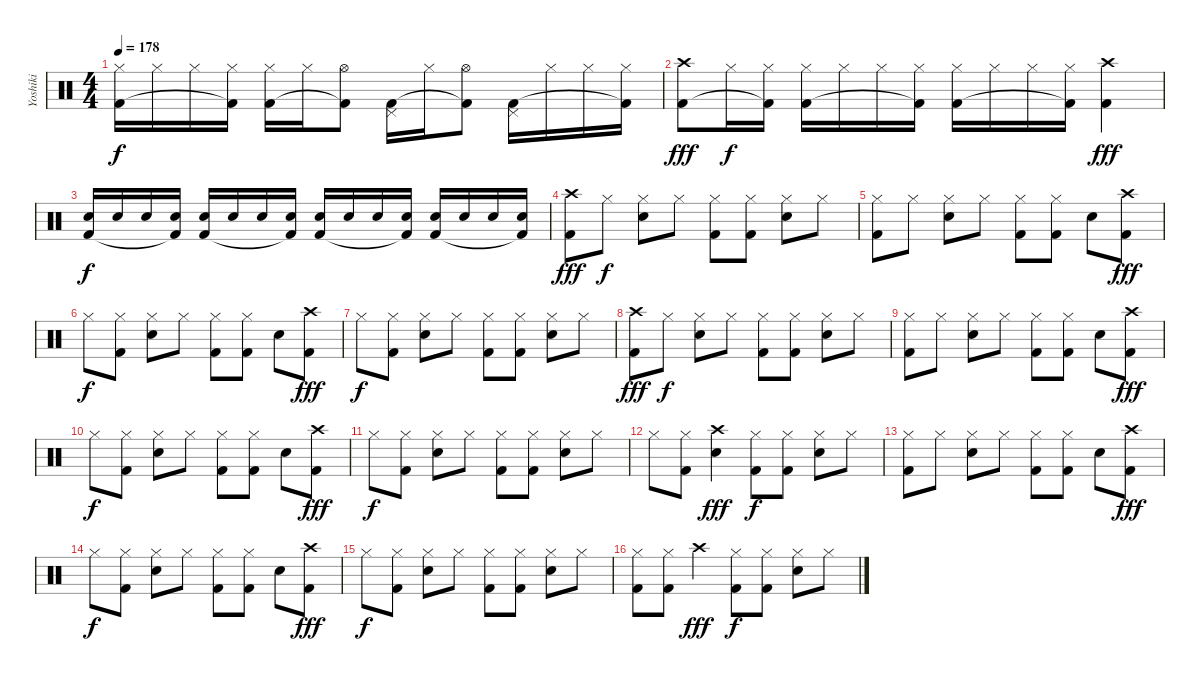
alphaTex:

\track ("Yoshiki" "Yoshiki") {instrument percussion}
\staff {score}
\articulation defaults
\ts (4 4)
\tempo 178
\clef neutral
\ks c
("Hi-Hat (closed)" "Kick (hit) 2").16{dy f} "Hi-Hat (closed)".16 "Hi-Hat (closed)".16 ("Hi-Hat (closed)" "Kick (hit) 2"{t}).16 ("Hi-Hat (closed)" "Kick (hit) 2").16 "Hi-Hat (closed)".16 ("Hi-Hat (open)" "Kick (hit) 2"{t}).8 ("Pedal Hi-Hat (hit)" "Kick (hit) 2").16 "Hi-Hat (closed)".16 ("Hi-Hat (open)" "Kick (hit) 2"{t}).8 ("Pedal Hi-Hat (hit)" "Kick (hit) 2").16 "Hi-Hat (closed)".16 "Hi-Hat (closed)".16 ("Hi-Hat (closed)" "Kick (hit) 2"{t}).16 |
("Crash high (hit)" "Kick (hit) 2").8{dy fff} "Hi-Hat (closed)".16{dy f} ("Hi-Hat (closed)" "Kick (hit) 2"{t}).16 ("Hi-Hat (closed)" "Kick (hit) 2").16 "Hi-Hat (closed)".16 "Hi-Hat (closed)".16 ("Hi-Hat (closed)" "Kick (hit) 2"{t}).16 ("Hi-Hat (closed)" "Kick (hit) 2").16 "Hi-Hat (closed)".16 "Hi-Hat (closed)".16 ("Hi-Hat (closed)" "Kick (hit) 2"{t}).16 ("Crash high (hit)" "Kick (hit) 2").4{dy fff} |
("Snare (hit) 2" "Kick (hit) 2").16{dy f} "Snare (hit) 2".16 "Snare (hit) 2".16 ("Snare (hit) 2" "Kick (hit) 2"{t}).16 ("Snare (hit) 2" "Kick (hit) 2").16 "Snare (hit) 2".16 "Snare (hit) 2".16 ("Snare (hit) 2" "Kick (hit) 2"{t}).16 ("Snare (hit) 2" "Kick (hit) 2").16 "Snare (hit) 2".16 "Snare (hit) 2".16 ("Snare (hit) 2" "Kick (hit) 2"{t}).16 ("Snare (hit) 2" "Kick (hit) 2").16 "Snare (hit) 2".16 "Snare (hit) 2".16 ("Snare (hit) 2" "Kick (hit) 2"{t}).16 |
("Crash high (hit)" "Kick (hit) 2").8{dy fff} "Hi-Hat (closed)".8{dy f} ("Hi-Hat (closed)" "Snare (hit) 2").8 "Hi-Hat (closed)".8 ("Hi-Hat (closed)" "Kick (hit) 2").8 ("Hi-Hat (closed)" "Kick (hit) 2").8 ("Hi-Hat (closed)" "Snare (hit) 2").8 "Hi-Hat (closed)".8 |
("Hi-Hat (closed)" "Kick (hit) 2").8 "Hi-Hat (closed)".8 ("Hi-Hat (closed)" "Snare (hit) 2").8 "Hi-Hat (closed)".8 ("Hi-Hat (closed)" "Kick (hit) 2").8 ("Hi-Hat (closed)" "Kick (hit) 2").8 "Snare (hit) 2".8 ("Crash high (hit)" "Kick (hit) 2").8{dy fff} |
"Hi-Hat (closed)".8{dy f} ("Hi-Hat (closed)" "Kick (hit) 2").8 ("Hi-Hat (closed)" "Snare (hit) 2").8 "Hi-Hat (closed)".8 ("Hi-Hat (closed)" "Kick (hit) 2").8 ("Hi-Hat (closed)" "Kick (hit) 2").8 "Snare (hit) 2".8 ("Crash high (hit)" "Kick (hit) 2").8{dy fff} |
"Hi-Hat (closed)".8{dy f} ("Hi-Hat (closed)" "Kick (hit) 2").8 ("Hi-Hat (closed)" "Snare (hit) 2").8 "Hi-Hat (closed)".8 ("Hi-Hat (closed)" "Kick (hit) 2").8 ("Hi-Hat (closed)" "Kick (hit) 2").8 ("Hi-Hat (closed)" "Snare (hit) 2").8 "Hi-Hat (closed)".8 |
("Crash high (hit)" "Kick (hit) 2").8{dy fff} "Hi-Hat (closed)".8{dy f} ("Hi-Hat (closed)" "Snare (hit) 2").8 "Hi-Hat (closed)".8 ("Hi-Hat (closed)" "Kick (hit) 2").8 ("Hi-Hat (closed)" "Kick (hit) 2").8 ("Hi-Hat (closed)" "Snare (hit) 2").8 "Hi-Hat (closed)".8 |
("Hi-Hat (closed)" "Kick (hit) 2").8 "Hi-Hat (closed)".8 ("Hi-Hat (closed)" "Snare (hit) 2").8 "Hi-Hat (closed)".8 ("Hi-Hat (closed)" "Kick (hit) 2").8 ("Hi-Hat (closed)" "Kick (hit) 2").8 "Snare (hit) 2".8 ("Crash high (hit)" "Kick (hit) 2").8{dy fff} |
"Hi-Hat (closed)".8{dy f} ("Hi-Hat (closed)" "Kick (hit) 2").8 ("Hi-Hat (closed)" "Snare (hit) 2").8 "Hi-Hat (closed)".8 ("Hi-Hat (closed)" "Kick (hit) 2").8 ("Hi-Hat (closed)" "Kick (hit) 2").8 "Snare (hit) 2".8 ("Crash high (hit)" "Kick (hit) 2").8{dy fff} |
"Hi-Hat (closed)".8{dy f} ("Hi-Hat (closed)" "Kick (hit) 2").8 ("Hi-Hat (closed)" "Snare (hit) 2").8 "Hi-Hat (closed)".8 ("Hi-Hat (closed)" "Kick (hit) 2").8 ("Hi-Hat (closed)" "Kick (hit) 2").8 ("Hi-Hat (closed)" "Snare (hit) 2").8 "Hi-Hat (closed)".8 |
"Hi-Hat (closed)".8 ("Hi-Hat (closed)" "Kick (hit) 2").8 ("Crash high (hit)" "Snare (hit) 2").4{dy fff} ("Hi-Hat (closed)" "Kick (hit) 2").8{dy f} ("Hi-Hat (closed)" "Kick (hit) 2").8 ("Hi-Hat (closed)" "Snare (hit) 2").8 "Hi-Hat (closed)".8 |
("Hi-Hat (closed)" "Kick (hit) 2").8 "Hi-Hat (closed)".8 ("Hi-Hat (closed)" "Snare (hit) 2").8 "Hi-Hat (closed)".8 ("Hi-Hat (closed)" "Kick (hit) 2").8 ("Hi-Hat (closed)" "Kick (hit) 2").8 "Snare (hit) 2".8 ("Crash high (hit)" "Kick (hit) 2").8{dy fff} |
"Hi-Hat (closed)".8{dy f} ("Hi-Hat (closed)" "Kick (hit) 2").8 ("Hi-Hat (closed)" "Snare (hit) 2").8 "Hi-Hat (closed)".8 ("Hi-Hat (closed)" "Kick (hit) 2").8 ("Hi-Hat (closed)" "Kick (hit) 2").8 "Snare (hit) 2".8 ("Crash high (hit)" "Kick (hit) 2").8{dy fff} |
"Hi-Hat (closed)".8{dy f} ("Hi-Hat (closed)" "Kick (hit) 2").8 ("Hi-Hat (closed)" "Snare (hit) 2").8 "Hi-Hat (closed)".8 ("Hi-Hat (closed)" "Kick (hit) 2").8 ("Hi-Hat (closed)" "Kick (hit) 2").8 ("Hi-Hat (closed)" "Snare (hit) 2").8 "Hi-Hat (closed)".8 |
("Hi-Hat (closed)" "Kick (hit) 2").8 ("Hi-Hat (closed)" "Kick (hit) 2").8 "Crash high (hit)".4{dy fff} ("Hi-Hat (closed)" "Kick (hit) 2").8{dy f} ("Hi-Hat (closed)" "Kick (hit) 2").8 ("Hi-Hat (closed)" "Snare (hit) 2").8 "Hi-Hat (closed)".8
